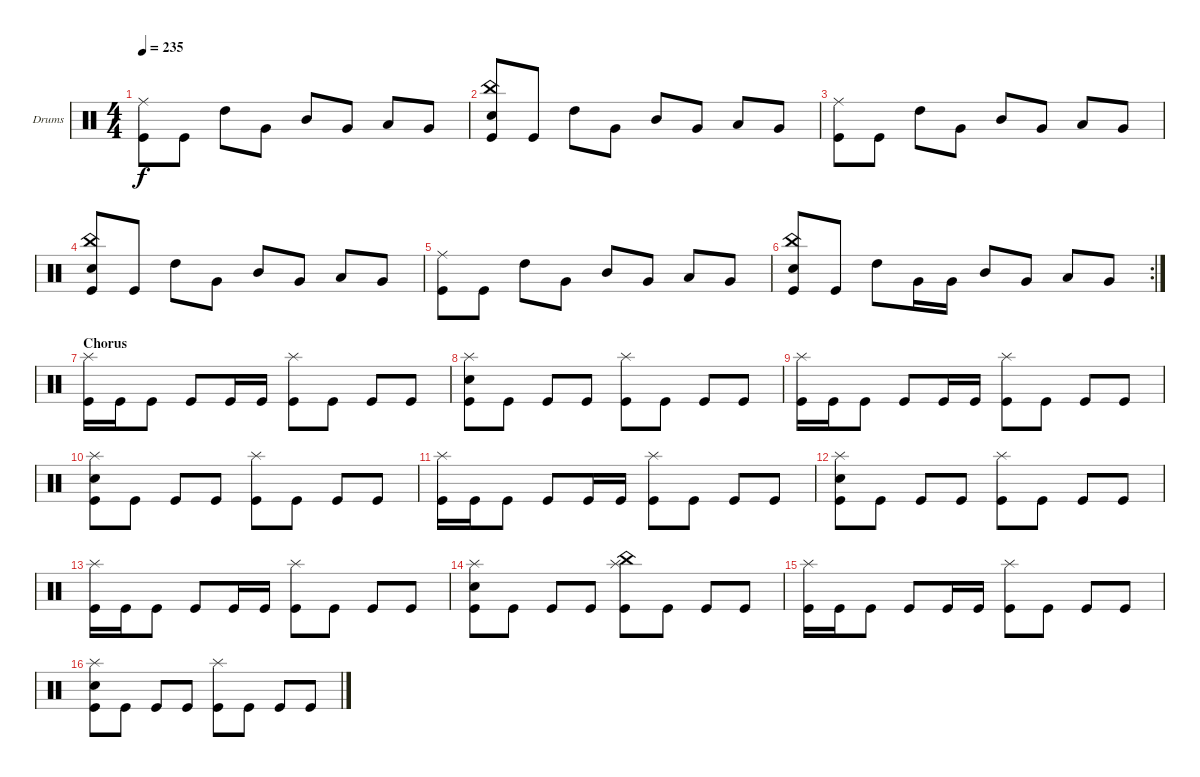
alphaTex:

\defaultSystemsLayout 4
\bracketExtendMode groupsimilarinstruments
\firstSystemTrackNameOrientation horizontal
\otherSystemsTrackNameOrientation horizontal
\track ("Drumkit" "Drums") {instrument percussion}
\staff {score}
\articulation defaults
\ts (4 4)
\tempo 235
\clef neutral
\ks c
("Kick (hit)" "Ride (middle)").8{dy f} "Kick (hit)".8 "High Tom (hit)".8 "Very Low Tom (hit)".8 "Mid Tom (hit)".8 "Very Low Tom (hit)".8 "Low Tom (hit)".8 "Very Low Tom (hit)".8 |
("Kick (hit)" "China (hit)" "Snare (hit) 2").8 "Kick (hit)".8 "High Tom (hit)".8 "Very Low Tom (hit)".8 "Mid Tom (hit)".8 "Very Low Tom (hit)".8 "Low Tom (hit)".8 "Very Low Tom (hit)".8 |
("Kick (hit)" "Ride (middle)").8 "Kick (hit)".8 "High Tom (hit)".8 "Very Low Tom (hit)".8 "Mid Tom (hit)".8 "Very Low Tom (hit)".8 "Low Tom (hit)".8 "Very Low Tom (hit)".8 |
("Kick (hit)" "China (hit)" "Snare (hit) 2").8 "Kick (hit)".8 "High Tom (hit)".8 "Very Low Tom (hit)".8 "Mid Tom (hit)".8 "Very Low Tom (hit)".8 "Low Tom (hit)".8 "Very Low Tom (hit)".8 |
("Kick (hit)" "Ride (middle)").8 "Kick (hit)".8 "High Tom (hit)".8 "Very Low Tom (hit)".8 "Mid Tom (hit)".8 "Very Low Tom (hit)".8 "Low Tom (hit)".8 "Very Low Tom (hit)".8 |
\rc 2
("Kick (hit)" "China (hit)" "Snare (hit) 2").8 "Kick (hit)".8 "High Tom (hit)".8 "Very Low Tom (hit)".16 "Very Low Tom (hit)".16 "Mid Tom (hit)".8 "Very Low Tom (hit)".8 "Low Tom (hit)".8 "Very Low Tom (hit)".8 |
\section ("" "Chorus")
("Splash (hit)" "Kick (hit)").16 "Kick (hit)".16 "Kick (hit)".8 "Kick (hit)".8 "Kick (hit)".16 "Kick (hit)".16 ("Kick (hit)" "Splash (hit)").8 "Kick (hit)".8 "Kick (hit)".8 "Kick (hit)".8 |
("Kick (hit)" "Splash (hit)" "Snare (hit) 2").8 "Kick (hit)".8 "Kick (hit)".8 "Kick (hit)".8 ("Kick (hit)" "Splash (hit)").8 "Kick (hit)".8 "Kick (hit)".8 "Kick (hit)".8 |
("Splash (hit)" "Kick (hit)").16 "Kick (hit)".16 "Kick (hit)".8 "Kick (hit)".8 "Kick (hit)".16 "Kick (hit)".16 ("Kick (hit)" "Splash (hit)").8 "Kick (hit)".8 "Kick (hit)".8 "Kick (hit)".8 |
("Kick (hit)" "Splash (hit)" "Snare (hit) 2").8 "Kick (hit)".8 "Kick (hit)".8 "Kick (hit)".8 ("Kick (hit)" "Splash (hit)").8 "Kick (hit)".8 "Kick (hit)".8 "Kick (hit)".8 |
("Splash (hit)" "Kick (hit)").16 "Kick (hit)".16 "Kick (hit)".8 "Kick (hit)".8 "Kick (hit)".16 "Kick (hit)".16 ("Kick (hit)" "Splash (hit)").8 "Kick (hit)".8 "Kick (hit)".8 "Kick (hit)".8 |
("Kick (hit)" "Splash (hit)" "Snare (hit) 2").8 "Kick (hit)".8 "Kick (hit)".8 "Kick (hit)".8 ("Kick (hit)" "Splash (hit)").8 "Kick (hit)".8 "Kick (hit)".8 "Kick (hit)".8 |
("Splash (hit)" "Kick (hit)").16 "Kick (hit)".16 "Kick (hit)".8 "Kick (hit)".8 "Kick (hit)".16 "Kick (hit)".16 ("Kick (hit)" "Splash (hit)").8 "Kick (hit)".8 "Kick (hit)".8 "Kick (hit)".8 |
("Kick (hit)" "Splash (hit)" "Snare (hit) 2").8 "Kick (hit)".8 "Kick (hit)".8 "Kick (hit)".8 ("Kick (hit)" "Splash (hit)" "China (hit)").8 "Kick (hit)".8 "Kick (hit)".8 "Kick (hit)".8 |
("Splash (hit)" "Kick (hit)").16 "Kick (hit)".16 "Kick (hit)".8 "Kick (hit)".8 "Kick (hit)".16 "Kick (hit)".16 ("Kick (hit)" "Splash (hit)").8 "Kick (hit)".8 "Kick (hit)".8 "Kick (hit)".8 |
("Kick (hit)" "Splash (hit)" "Snare (hit) 2").8 "Kick (hit)".8 "Kick (hit)".8 "Kick (hit)".8 ("Kick (hit)" "Splash (hit)").8 "Kick (hit)".8 "Kick (hit)".8 "Kick (hit)".8
